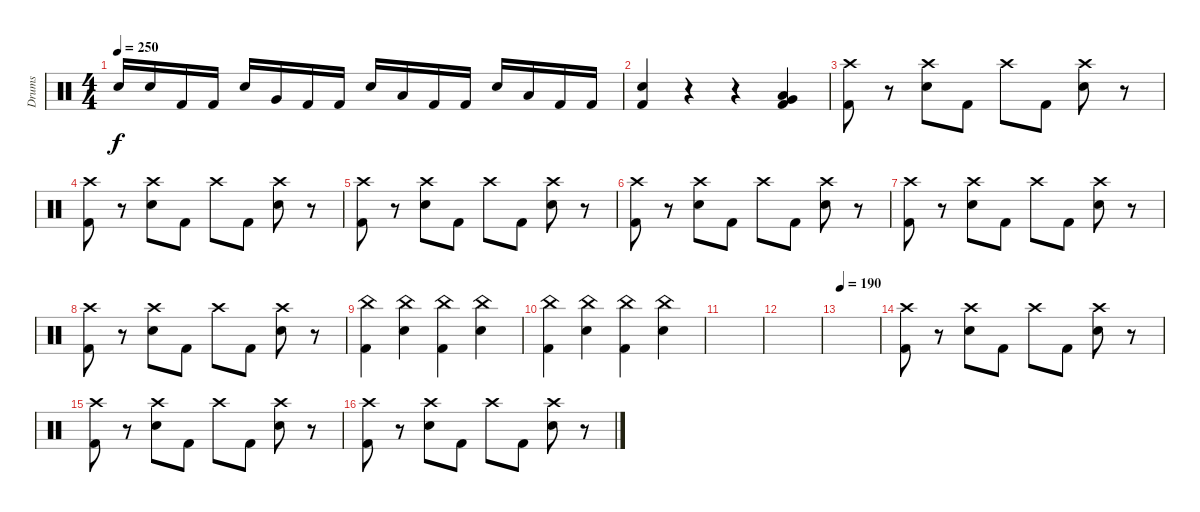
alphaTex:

\track ("Drums" "Drums") {instrument percussion}
\staff {score}
\articulation defaults
\ts (4 4)
\tempo 250
\clef neutral
\ks c "Snare (hit) 2".16{dy f} "Snare (hit) 2".16 "Kick (hit) 2".16 "Kick (hit) 2".16 "Snare (hit) 2".16 "Very Low Tom (hit)".16 "Kick (hit) 2".16 "Kick (hit) 2".16 "Snare (hit) 2".16 "Low Tom (hit)".16 "Kick (hit) 2".16 "Kick (hit) 2".16 "Snare (hit) 2".16 "Low Floor Tom (hit)".16 "Kick (hit) 2".16 "Kick (hit) 2".16
|
("Snare (hit) 2" "Kick (hit) 2").4 r.4 r.4 ("Low Tom (hit)" "Very Low Tom (hit)" "Kick (hit) 2").4 |
("Crash high (hit)" "Kick (hit) 2").8 r.8 ("Crash high (hit)" "Snare (hit) 2").8 "Kick (hit) 2".8 "Crash high (hit)".8 "Kick (hit) 2".8 ("Crash high (hit)" "Snare (hit) 2").8 r.8 |
("Crash high (hit)" "Kick (hit) 2").8 r.8 ("Crash high (hit)" "Snare (hit) 2").8 "Kick (hit) 2".8 "Crash high (hit)".8 "Kick (hit) 2".8 ("Crash high (hit)" "Snare (hit) 2").8 r.8 |
("Crash high (hit)" "Kick (hit) 2").8 r.8 ("Crash high (hit)" "Snare (hit) 2").8 "Kick (hit) 2".8 "Crash high (hit)".8 "Kick (hit) 2".8 ("Crash high (hit)" "Snare (hit) 2").8 r.8 |
("Crash high (hit)" "Kick (hit) 2").8 r.8 ("Crash high (hit)" "Snare (hit) 2").8 "Kick (hit) 2".8 "Crash high (hit)".8 "Kick (hit) 2".8 ("Crash high (hit)" "Snare (hit) 2").8 r.8 |
("Crash high (hit)" "Kick (hit) 2").8 r.8 ("Crash high (hit)" "Snare (hit) 2").8 "Kick (hit) 2".8 "Crash high (hit)".8 "Kick (hit) 2".8 ("Crash high (hit)" "Snare (hit) 2").8 r.8 |
("Crash high (hit)" "Kick (hit) 2").8 r.8 ("Crash high (hit)" "Snare (hit) 2").8 "Kick (hit) 2".8 "Crash high (hit)".8 "Kick (hit) 2".8 ("Crash high (hit)" "Snare (hit) 2").8 r.8 |
("China (hit)" "Kick (hit) 2").4 ("China (hit)" "Snare (hit) 2").4 ("China (hit)" "Kick (hit) 2").4 ("China (hit)" "Snare (hit) 2").4 |
("China (hit)" "Kick (hit) 2").4 ("China (hit)" "Snare (hit) 2").4 ("China (hit)" "Kick (hit) 2").4 ("China (hit)" "Snare (hit) 2").4 |
|
|
\tempo 190
|
("Crash high (hit)" "Kick (hit) 2").8 r.8 ("Crash high (hit)" "Snare (hit) 2").8 "Kick (hit) 2".8 "Crash high (hit)".8 "Kick (hit) 2".8 ("Crash high (hit)" "Snare (hit) 2").8 r.8 |
("Crash high (hit)" "Kick (hit) 2").8 r.8 ("Crash high (hit)" "Snare (hit) 2").8 "Kick (hit) 2".8 "Crash high (hit)".8 "Kick (hit) 2".8 ("Crash high (hit)" "Snare (hit) 2").8 r.8 |
("Crash high (hit)" "Kick (hit) 2").8 r.8 ("Crash high (hit)" "Snare (hit) 2").8 "Kick (hit) 2".8 "Crash high (hit)".8 "Kick (hit) 2".8 ("Crash high (hit)" "Snare (hit) 2").8 r.8
